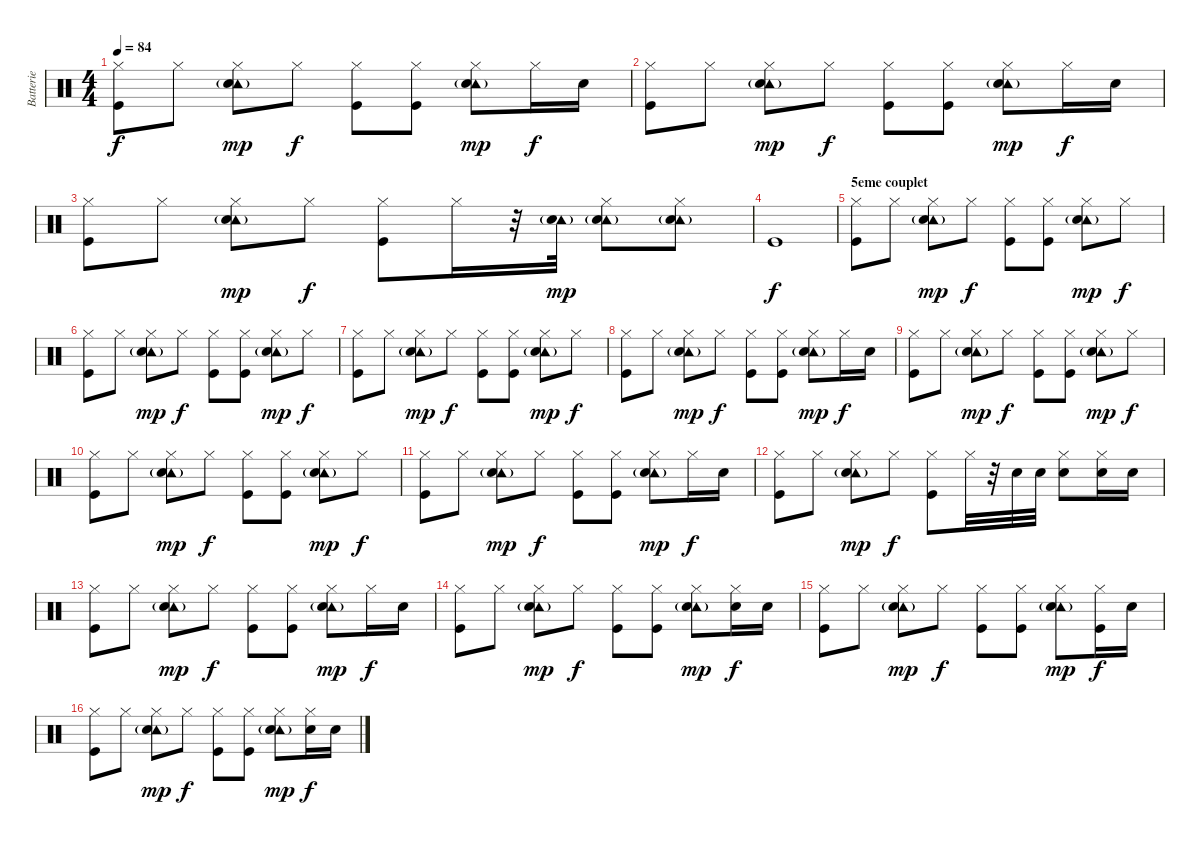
\track ("Batterie" "Batterie") {instrument percussion}
\staff {score}
\articulation defaults
\ts (4 4)
\tempo 84
\clef neutral
\ks c
("Hi-Hat (closed)" "Kick (hit)").8{dy f} "Hi-Hat (closed)".8 ("Hi-Hat (closed)" "Tambourine (hit)"{g} "Snare (hit) 2").8{dy mp} "Hi-Hat (closed)".8{dy f} ("Hi-Hat (closed)" "Kick (hit)").8 ("Hi-Hat (closed)" "Kick (hit)").8 ("Hi-Hat (closed)" "Tambourine (hit)"{g} "Snare (hit) 2").8{dy mp} "Hi-Hat (closed)".16{dy f} "Snare (hit) 2".16 |
("Hi-Hat (closed)" "Kick (hit)").8 "Hi-Hat (closed)".8 ("Hi-Hat (closed)" "Tambourine (hit)"{g} "Snare (hit) 2").8{dy mp} "Hi-Hat (closed)".8{dy f} ("Hi-Hat (closed)" "Kick (hit)").8 ("Hi-Hat (closed)" "Kick (hit)").8 ("Hi-Hat (closed)" "Tambourine (hit)"{g} "Snare (hit) 2").8{dy mp} "Hi-Hat (closed)".16{dy f} "Snare (hit) 2".16 |
("Hi-Hat (closed)" "Kick (hit)").8 "Hi-Hat (closed)".8 ("Hi-Hat (closed)" "Tambourine (hit)"{g} "Snare (hit) 2").8{dy mp} "Hi-Hat (closed)".8{dy f} ("Hi-Hat (closed)" "Kick (hit)").8 "Hi-Hat (closed)".16 r.32 ("Tambourine (hit)"{g} "Snare (hit) 2").32{dy mp} ("Hi-Hat (closed)" "Tambourine (hit)"{g} "Snare (hit) 2").8 ("Hi-Hat (closed)" "Tambourine (hit)"{g} "Snare (hit) 2").8 |
"Kick (hit)".1{dy f} |
\section ("" "5eme couplet")
("Hi-Hat (closed)" "Kick (hit)").8 "Hi-Hat (closed)".8 ("Hi-Hat (closed)" "Tambourine (hit)"{g} "Snare (hit) 2").8{dy mp} "Hi-Hat (closed)".8{dy f} ("Hi-Hat (closed)" "Kick (hit)").8 ("Hi-Hat (closed)" "Kick (hit)").8 ("Hi-Hat (closed)" "Tambourine (hit)"{g} "Snare (hit) 2").8{dy mp} "Hi-Hat (closed)".8{dy f} |
("Hi-Hat (closed)" "Kick (hit)").8 "Hi-Hat (closed)".8 ("Hi-Hat (closed)" "Tambourine (hit)"{g} "Snare (hit) 2").8{dy mp} "Hi-Hat (closed)".8{dy f} ("Hi-Hat (closed)" "Kick (hit)").8 ("Hi-Hat (closed)" "Kick (hit)").8 ("Hi-Hat (closed)" "Tambourine (hit)"{g} "Snare (hit) 2").8{dy mp} "Hi-Hat (closed)".8{dy f} |
("Hi-Hat (closed)" "Kick (hit)").8 "Hi-Hat (closed)".8 ("Hi-Hat (closed)" "Tambourine (hit)"{g} "Snare (hit) 2").8{dy mp} "Hi-Hat (closed)".8{dy f} ("Hi-Hat (closed)" "Kick (hit)").8 ("Hi-Hat (closed)" "Kick (hit)").8 ("Hi-Hat (closed)" "Tambourine (hit)"{g} "Snare (hit) 2").8{dy mp} "Hi-Hat (closed)".8{dy f} |
("Hi-Hat (closed)" "Kick (hit)").8 "Hi-Hat (closed)".8 ("Hi-Hat (closed)" "Tambourine (hit)"{g} "Snare (hit) 2").8{dy mp} "Hi-Hat (closed)".8{dy f} ("Hi-Hat (closed)" "Kick (hit)").8 ("Hi-Hat (closed)" "Kick (hit)").8 ("Hi-Hat (closed)" "Tambourine (hit)"{g} "Snare (hit) 2").8{dy mp} "Hi-Hat (closed)".16{dy f} "Snare (hit) 2".16 |
("Hi-Hat (closed)" "Kick (hit)").8 "Hi-Hat (closed)".8 ("Hi-Hat (closed)" "Tambourine (hit)"{g} "Snare (hit) 2").8{dy mp} "Hi-Hat (closed)".8{dy f} ("Hi-Hat (closed)" "Kick (hit)").8 ("Hi-Hat (closed)" "Kick (hit)").8 ("Hi-Hat (closed)" "Tambourine (hit)"{g} "Snare (hit) 2").8{dy mp} "Hi-Hat (closed)".8{dy f} |
("Hi-Hat (closed)" "Kick (hit)").8 "Hi-Hat (closed)".8 ("Hi-Hat (closed)" "Tambourine (hit)"{g} "Snare (hit) 2").8{dy mp} "Hi-Hat (closed)".8{dy f} ("Hi-Hat (closed)" "Kick (hit)").8 ("Hi-Hat (closed)" "Kick (hit)").8 ("Hi-Hat (closed)" "Tambourine (hit)"{g} "Snare (hit) 2").8{dy mp} "Hi-Hat (closed)".8{dy f} |
("Hi-Hat (closed)" "Kick (hit)").8 "Hi-Hat (closed)".8 ("Hi-Hat (closed)" "Tambourine (hit)"{g} "Snare (hit) 2").8{dy mp} "Hi-Hat (closed)".8{dy f} ("Hi-Hat (closed)" "Kick (hit)").8 ("Hi-Hat (closed)" "Kick (hit)").8 ("Hi-Hat (closed)" "Tambourine (hit)"{g} "Snare (hit) 2").8{dy mp} "Hi-Hat (closed)".16{dy f} "Snare (hit) 2".16 |
("Hi-Hat (closed)" "Kick (hit)").8 "Hi-Hat (closed)".8 ("Hi-Hat (closed)" "Tambourine (hit)"{g} "Snare (hit) 2").8{dy mp} "Hi-Hat (closed)".8{dy f} ("Hi-Hat (closed)" "Kick (hit)").8 "Hi-Hat (closed)".32 r.32 "Snare (hit) 2".32 "Snare (hit) 2".32 ("Hi-Hat (closed)" "Snare (hit) 2").8 ("Hi-Hat (closed)" "Snare (hit) 2").16 "Snare (hit) 2".16 |
\section ("" "")
("Hi-Hat (closed)" "Kick (hit)").8 "Hi-Hat (closed)".8 ("Hi-Hat (closed)" "Tambourine (hit)"{g} "Snare (hit) 2").8{dy mp} "Hi-Hat (closed)".8{dy f} ("Hi-Hat (closed)" "Kick (hit)").8 ("Hi-Hat (closed)" "Kick (hit)").8 ("Hi-Hat (closed)" "Tambourine (hit)"{g} "Snare (hit) 2").8{dy mp} "Hi-Hat (closed)".16{dy f} "Snare (hit) 2".16 |
("Hi-Hat (closed)" "Kick (hit)").8 "Hi-Hat (closed)".8 ("Hi-Hat (closed)" "Tambourine (hit)"{g} "Snare (hit) 2").8{dy mp} "Hi-Hat (closed)".8{dy f} ("Hi-Hat (closed)" "Kick (hit)").8 ("Hi-Hat (closed)" "Kick (hit)").8 ("Hi-Hat (closed)" "Tambourine (hit)"{g} "Snare (hit) 2").8{dy mp} ("Hi-Hat (closed)" "Snare (hit) 2").16{dy f} "Snare (hit) 2".16 |
("Hi-Hat (closed)" "Kick (hit)").8 "Hi-Hat (closed)".8 ("Hi-Hat (closed)" "Tambourine (hit)"{g} "Snare (hit) 2").8{dy mp} "Hi-Hat (closed)".8{dy f} ("Hi-Hat (closed)" "Kick (hit)").8 ("Hi-Hat (closed)" "Kick (hit)").8 ("Hi-Hat (closed)" "Tambourine (hit)"{g} "Snare (hit) 2").8{dy mp} ("Hi-Hat (closed)" "Kick (hit)").16{dy f} "Snare (hit) 2".16 |
("Hi-Hat (closed)" "Kick (hit)").8 "Hi-Hat (closed)".8 ("Hi-Hat (closed)" "Tambourine (hit)"{g} "Snare (hit) 2").8{dy mp} "Hi-Hat (closed)".8{dy f} ("Hi-Hat (closed)" "Kick (hit)").8 ("Hi-Hat (closed)" "Kick (hit)").8 ("Hi-Hat (closed)" "Tambourine (hit)"{g} "Snare (hit) 2").8{dy mp} ("Hi-Hat (closed)" "Snare (hit) 2").16{dy f} "Snare (hit) 2".16
